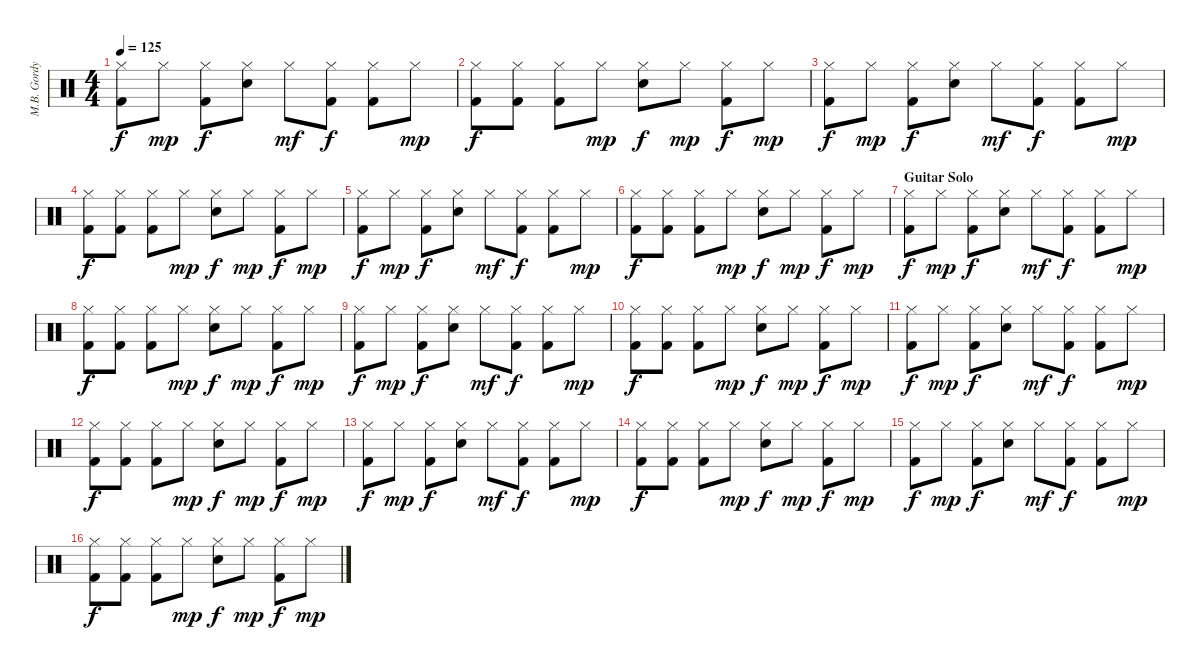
\track ("M.B. Gordy [Percüsion]" "M.B. Gordy") {instrument percussion}
\staff {score}
\articulation defaults
\ts (4 4)
\tempo 125
\clef neutral
\ks c
("Hi-Hat (closed)" "Kick (hit) 2").8{dy f} "Hi-Hat (closed)".8{dy mp} ("Hi-Hat (closed)" "Kick (hit) 2").8{dy f} ("Hi-Hat (closed)" "Electric Snare (hit)").8 "Hi-Hat (closed)".8{dy mf} ("Hi-Hat (closed)" "Kick (hit) 2").8{dy f} ("Hi-Hat (closed)" "Kick (hit) 2").8 "Hi-Hat (closed)".8{dy mp} |
("Hi-Hat (closed)" "Kick (hit) 2").8{dy f} ("Hi-Hat (closed)" "Kick (hit) 2").8 ("Hi-Hat (closed)" "Kick (hit) 2").8 "Hi-Hat (closed)".8{dy mp} ("Hi-Hat (closed)" "Electric Snare (hit)").8{dy f} "Hi-Hat (closed)".8{dy mp} ("Hi-Hat (closed)" "Kick (hit) 2").8{dy f} "Hi-Hat (closed)".8{dy mp} |
("Hi-Hat (closed)" "Kick (hit) 2").8{dy f} "Hi-Hat (closed)".8{dy mp} ("Hi-Hat (closed)" "Kick (hit) 2").8{dy f} ("Hi-Hat (closed)" "Electric Snare (hit)").8 "Hi-Hat (closed)".8{dy mf} ("Hi-Hat (closed)" "Kick (hit) 2").8{dy f} ("Hi-Hat (closed)" "Kick (hit) 2").8 "Hi-Hat (closed)".8{dy mp} |
("Hi-Hat (closed)" "Kick (hit) 2").8{dy f} ("Hi-Hat (closed)" "Kick (hit) 2").8 ("Hi-Hat (closed)" "Kick (hit) 2").8 "Hi-Hat (closed)".8{dy mp} ("Hi-Hat (closed)" "Electric Snare (hit)").8{dy f} "Hi-Hat (closed)".8{dy mp} ("Hi-Hat (closed)" "Kick (hit) 2").8{dy f} "Hi-Hat (closed)".8{dy mp} |
("Hi-Hat (closed)" "Kick (hit) 2").8{dy f} "Hi-Hat (closed)".8{dy mp} ("Hi-Hat (closed)" "Kick (hit) 2").8{dy f} ("Hi-Hat (closed)" "Electric Snare (hit)").8 "Hi-Hat (closed)".8{dy mf} ("Hi-Hat (closed)" "Kick (hit) 2").8{dy f} ("Hi-Hat (closed)" "Kick (hit) 2").8 "Hi-Hat (closed)".8{dy mp} |
("Hi-Hat (closed)" "Kick (hit) 2").8{dy f} ("Hi-Hat (closed)" "Kick (hit) 2").8 ("Hi-Hat (closed)" "Kick (hit) 2").8 "Hi-Hat (closed)".8{dy mp} ("Hi-Hat (closed)" "Electric Snare (hit)").8{dy f} "Hi-Hat (closed)".8{dy mp} ("Hi-Hat (closed)" "Kick (hit) 2").8{dy f} "Hi-Hat (closed)".8{dy mp} |
\section ("" "Guitar Solo")
("Hi-Hat (closed)" "Kick (hit) 2").8{dy f} "Hi-Hat (closed)".8{dy mp} ("Hi-Hat (closed)" "Kick (hit) 2").8{dy f} ("Hi-Hat (closed)" "Electric Snare (hit)").8 "Hi-Hat (closed)".8{dy mf} ("Hi-Hat (closed)" "Kick (hit) 2").8{dy f} ("Hi-Hat (closed)" "Kick (hit) 2").8 "Hi-Hat (closed)".8{dy mp} |
("Hi-Hat (closed)" "Kick (hit) 2").8{dy f} ("Hi-Hat (closed)" "Kick (hit) 2").8 ("Hi-Hat (closed)" "Kick (hit) 2").8 "Hi-Hat (closed)".8{dy mp} ("Hi-Hat (closed)" "Electric Snare (hit)").8{dy f} "Hi-Hat (closed)".8{dy mp} ("Hi-Hat (closed)" "Kick (hit) 2").8{dy f} "Hi-Hat (closed)".8{dy mp} |
("Hi-Hat (closed)" "Kick (hit) 2").8{dy f} "Hi-Hat (closed)".8{dy mp} ("Hi-Hat (closed)" "Kick (hit) 2").8{dy f} ("Hi-Hat (closed)" "Electric Snare (hit)").8 "Hi-Hat (closed)".8{dy mf} ("Hi-Hat (closed)" "Kick (hit) 2").8{dy f} ("Hi-Hat (closed)" "Kick (hit) 2").8 "Hi-Hat (closed)".8{dy mp} |
("Hi-Hat (closed)" "Kick (hit) 2").8{dy f} ("Hi-Hat (closed)" "Kick (hit) 2").8 ("Hi-Hat (closed)" "Kick (hit) 2").8 "Hi-Hat (closed)".8{dy mp} ("Hi-Hat (closed)" "Electric Snare (hit)").8{dy f} "Hi-Hat (closed)".8{dy mp} ("Hi-Hat (closed)" "Kick (hit) 2").8{dy f} "Hi-Hat (closed)".8{dy mp} |
("Hi-Hat (closed)" "Kick (hit) 2").8{dy f} "Hi-Hat (closed)".8{dy mp} ("Hi-Hat (closed)" "Kick (hit) 2").8{dy f} ("Hi-Hat (closed)" "Electric Snare (hit)").8 "Hi-Hat (closed)".8{dy mf} ("Hi-Hat (closed)" "Kick (hit) 2").8{dy f} ("Hi-Hat (closed)" "Kick (hit) 2").8 "Hi-Hat (closed)".8{dy mp} |
("Hi-Hat (closed)" "Kick (hit) 2").8{dy f} ("Hi-Hat (closed)" "Kick (hit) 2").8 ("Hi-Hat (closed)" "Kick (hit) 2").8 "Hi-Hat (closed)".8{dy mp} ("Hi-Hat (closed)" "Electric Snare (hit)").8{dy f} "Hi-Hat (closed)".8{dy mp} ("Hi-Hat (closed)" "Kick (hit) 2").8{dy f} "Hi-Hat (closed)".8{dy mp} |
("Hi-Hat (closed)" "Kick (hit) 2").8{dy f} "Hi-Hat (closed)".8{dy mp} ("Hi-Hat (closed)" "Kick (hit) 2").8{dy f} ("Hi-Hat (closed)" "Electric Snare (hit)").8 "Hi-Hat (closed)".8{dy mf} ("Hi-Hat (closed)" "Kick (hit) 2").8{dy f} ("Hi-Hat (closed)" "Kick (hit) 2").8 "Hi-Hat (closed)".8{dy mp} |
("Hi-Hat (closed)" "Kick (hit) 2").8{dy f} ("Hi-Hat (closed)" "Kick (hit) 2").8 ("Hi-Hat (closed)" "Kick (hit) 2").8 "Hi-Hat (closed)".8{dy mp} ("Hi-Hat (closed)" "Electric Snare (hit)").8{dy f} "Hi-Hat (closed)".8{dy mp} ("Hi-Hat (closed)" "Kick (hit) 2").8{dy f} "Hi-Hat (closed)".8{dy mp} |
("Hi-Hat (closed)" "Kick (hit) 2").8{dy f} "Hi-Hat (closed)".8{dy mp} ("Hi-Hat (closed)" "Kick (hit) 2").8{dy f} ("Hi-Hat (closed)" "Electric Snare (hit)").8 "Hi-Hat (closed)".8{dy mf} ("Hi-Hat (closed)" "Kick (hit) 2").8{dy f} ("Hi-Hat (closed)" "Kick (hit) 2").8 "Hi-Hat (closed)".8{dy mp} |
("Hi-Hat (closed)" "Kick (hit) 2").8{dy f} ("Hi-Hat (closed)" "Kick (hit) 2").8 ("Hi-Hat (closed)" "Kick (hit) 2").8 "Hi-Hat (closed)".8{dy mp} ("Hi-Hat (closed)" "Electric Snare (hit)").8{dy f} "Hi-Hat (closed)".8{dy mp} ("Hi-Hat (closed)" "Kick (hit) 2").8{dy f} "Hi-Hat (closed)".8{dy mp}
